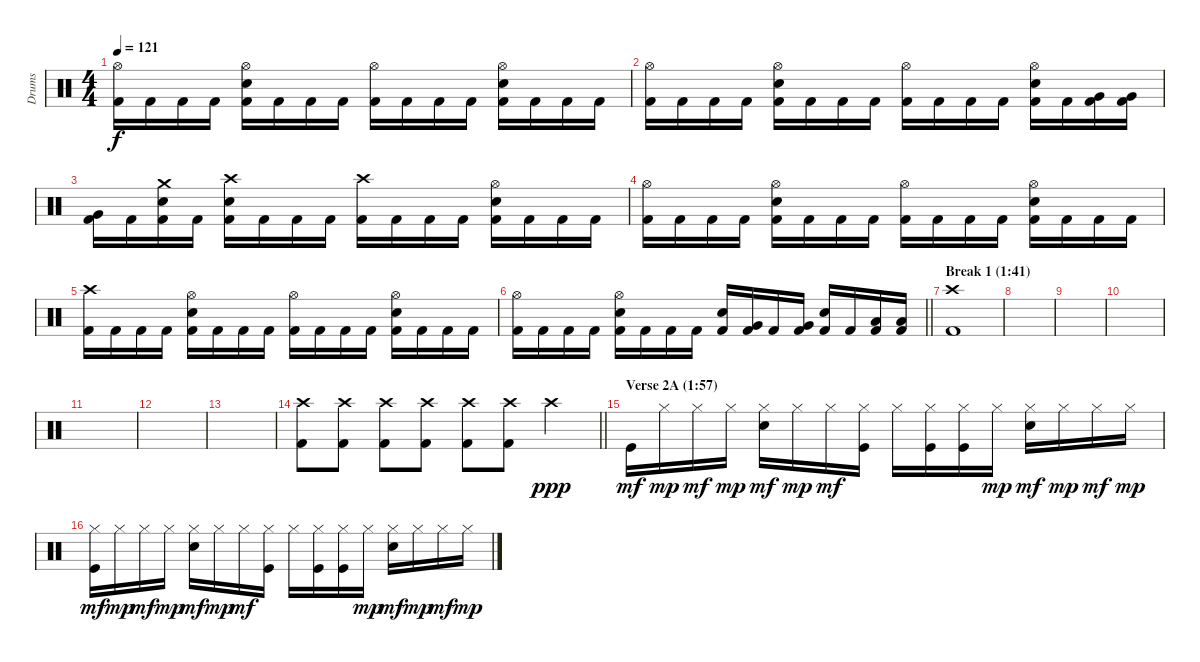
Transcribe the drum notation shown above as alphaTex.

\track ("Drums" "Drums") {instrument percussion}
\staff {score}
\articulation defaults
\ts (4 4)
\tempo 121
\clef neutral
\ks c
("Hi-Hat (open)" "Kick (hit) 2").16{dy f} "Kick (hit) 2".16 "Kick (hit) 2".16 "Kick (hit) 2".16 ("Hi-Hat (open)" "Electric Snare (hit)" "Kick (hit) 2").16 "Kick (hit) 2".16 "Kick (hit) 2".16 "Kick (hit) 2".16 ("Hi-Hat (open)" "Kick (hit) 2").16 "Kick (hit) 2".16 "Kick (hit) 2".16 "Kick (hit) 2".16 ("Hi-Hat (open)" "Electric Snare (hit)" "Kick (hit) 2").16 "Kick (hit) 2".16 "Kick (hit) 2".16 "Kick (hit) 2".16 |
("Hi-Hat (open)" "Kick (hit) 2").16 "Kick (hit) 2".16 "Kick (hit) 2".16 "Kick (hit) 2".16 ("Hi-Hat (open)" "Electric Snare (hit)" "Kick (hit) 2").16 "Kick (hit) 2".16 "Kick (hit) 2".16 "Kick (hit) 2".16 ("Hi-Hat (open)" "Kick (hit) 2").16 "Kick (hit) 2".16 "Kick (hit) 2".16 "Kick (hit) 2".16 ("Hi-Hat (open)" "Electric Snare (hit)" "Kick (hit) 2").16 "Kick (hit) 2".16 ("Very Low Tom (hit)" "Kick (hit) 2").16 ("Very Low Tom (hit)" "Kick (hit) 2").16 |
("Very Low Tom (hit)" "Kick (hit) 2").16 "Kick (hit) 2".16 ("Crash medium (hit)" "Electric Snare (hit)" "Kick (hit) 2").16 "Kick (hit) 2".16 ("Crash high (hit)" "Electric Snare (hit)" "Kick (hit) 2").16 "Kick (hit) 2".16 "Kick (hit) 2".16 "Kick (hit) 2".16 ("Crash high (hit)" "Kick (hit) 2").16 "Kick (hit) 2".16 "Kick (hit) 2".16 "Kick (hit) 2".16 ("Hi-Hat (open)" "Electric Snare (hit)" "Kick (hit) 2").16 "Kick (hit) 2".16 "Kick (hit) 2".16 "Kick (hit) 2".16 |
("Hi-Hat (open)" "Kick (hit) 2").16 "Kick (hit) 2".16 "Kick (hit) 2".16 "Kick (hit) 2".16 ("Hi-Hat (open)" "Electric Snare (hit)" "Kick (hit) 2").16 "Kick (hit) 2".16 "Kick (hit) 2".16 "Kick (hit) 2".16 ("Hi-Hat (open)" "Kick (hit) 2").16 "Kick (hit) 2".16 "Kick (hit) 2".16 "Kick (hit) 2".16 ("Hi-Hat (open)" "Electric Snare (hit)" "Kick (hit) 2").16 "Kick (hit) 2".16 "Kick (hit) 2".16 "Kick (hit) 2".16 |
("Crash high (hit)" "Kick (hit) 2").16 "Kick (hit) 2".16 "Kick (hit) 2".16 "Kick (hit) 2".16 ("Hi-Hat (open)" "Electric Snare (hit)" "Kick (hit) 2").16 "Kick (hit) 2".16 "Kick (hit) 2".16 "Kick (hit) 2".16 ("Hi-Hat (open)" "Kick (hit) 2").16 "Kick (hit) 2".16 "Kick (hit) 2".16 "Kick (hit) 2".16 ("Hi-Hat (open)" "Electric Snare (hit)" "Kick (hit) 2").16 "Kick (hit) 2".16 "Kick (hit) 2".16 "Kick (hit) 2".16 |
\barLineRight lightlight
("Hi-Hat (open)" "Kick (hit) 2").16 "Kick (hit) 2".16 "Kick (hit) 2".16 "Kick (hit) 2".16 ("Hi-Hat (open)" "Electric Snare (hit)" "Kick (hit) 2").16 "Kick (hit) 2".16 "Kick (hit) 2".16 "Kick (hit) 2".16 ("Electric Snare (hit)" "Kick (hit) 2").16 ("Very Low Tom (hit)" "Kick (hit) 2").16 "Kick (hit) 2".16 ("Very Low Tom (hit)" "Kick (hit) 2").16 ("Electric Snare (hit)" "Kick (hit) 2").16 "Kick (hit) 2".16 ("Low Floor Tom (hit)" "Kick (hit) 2").16 ("Low Floor Tom (hit)" "Kick (hit) 2").16 |
\section ("" "Break 1 (1:41)")
("Crash high (hit)" "Kick (hit) 2").1 |
|
|
|
|
|
|
\barLineRight lightlight
("Crash high (hit)" "Kick (hit) 2").8 ("Crash high (hit)" "Kick (hit) 2").8 ("Crash high (hit)" "Kick (hit) 2").8 ("Crash high (hit)" "Kick (hit) 2").8 ("Crash high (hit)" "Kick (hit) 2").8 ("Crash high (hit)" "Kick (hit) 2").8 "Crash high (hit)".4{dy ppp} |
\section ("" "Verse 2A (1:57)")
"Kick (hit)".16{dy mf volume 8} "Hi-Hat (closed)".16{dy mp} "Hi-Hat (closed)".16{dy mf} "Hi-Hat (closed)".16{dy mp} ("Hi-Hat (closed)" "Electric Snare (hit)").16{dy mf} "Hi-Hat (closed)".16{dy mp} "Hi-Hat (closed)".16{dy mf} ("Hi-Hat (closed)" "Kick (hit)").16 "Hi-Hat (closed)".16 ("Hi-Hat (closed)" "Kick (hit)").16 ("Hi-Hat (closed)" "Kick (hit)").16 "Hi-Hat (closed)".16{dy mp} ("Hi-Hat (closed)" "Electric Snare (hit)").16{dy mf} "Hi-Hat (closed)".16{dy mp} "Hi-Hat (closed)".16{dy mf} "Hi-Hat (closed)".16{dy mp} |
("Hi-Hat (closed)" "Kick (hit)").16{dy mf} "Hi-Hat (closed)".16{dy mp} "Hi-Hat (closed)".16{dy mf} "Hi-Hat (closed)".16{dy mp} ("Hi-Hat (closed)" "Electric Snare (hit)").16{dy mf} "Hi-Hat (closed)".16{dy mp} "Hi-Hat (closed)".16{dy mf} ("Hi-Hat (closed)" "Kick (hit)").16 "Hi-Hat (closed)".16 ("Hi-Hat (closed)" "Kick (hit)").16 ("Hi-Hat (closed)" "Kick (hit)").16 "Hi-Hat (closed)".16{dy mp} ("Hi-Hat (closed)" "Electric Snare (hit)").16{dy mf} "Hi-Hat (closed)".16{dy mp} "Hi-Hat (closed)".16{dy mf} "Hi-Hat (closed)".16{dy mp}
